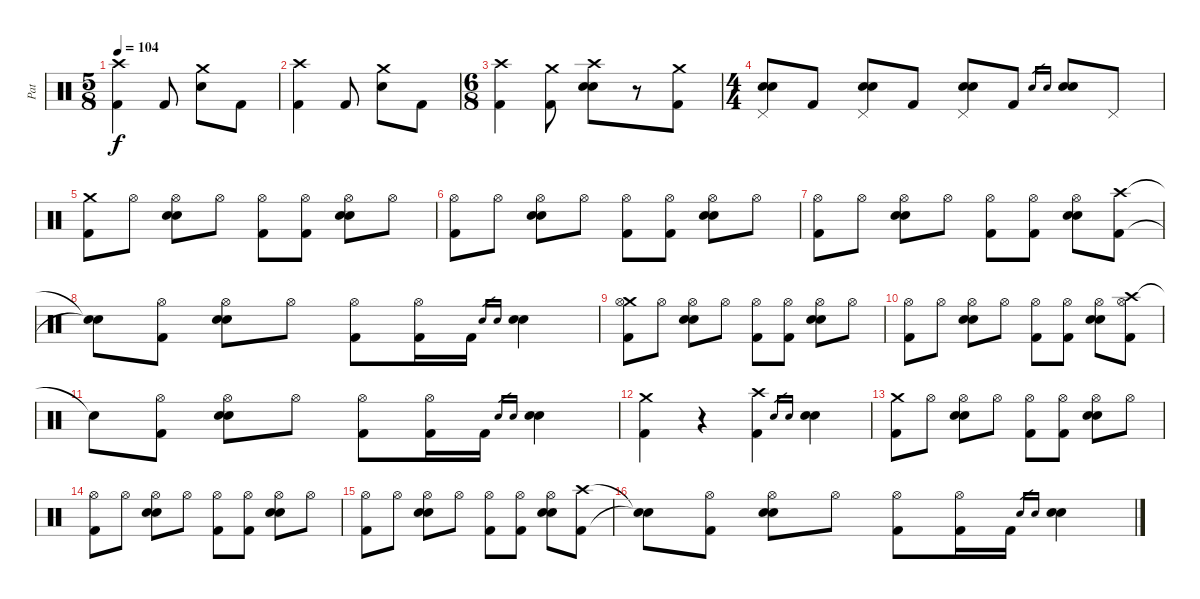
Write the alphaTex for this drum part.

\track ("Pat" "Pat") {instrument percussion}
\staff {score}
\articulation defaults
\ts (5 8)
\tempo 104
\clef neutral
\ks c
("Crash high (hit)" "Kick (hit) 2").4{dy f} "Kick (hit) 2".8 ("Crash medium (hit)" "Electric Snare (hit)").8 "Kick (hit) 2".8 |
("Crash high (hit)" "Kick (hit) 2").4 "Kick (hit) 2".8 ("Crash medium (hit)" "Electric Snare (hit)").8 "Kick (hit) 2".8 |
\ts (6 8)
("Crash high (hit)" "Kick (hit) 2").4 ("Crash medium (hit)" "Kick (hit) 2").8 ("Crash high (hit)" "Electric Snare (hit)" "Snare (hit) 2").8 r.8 ("Crash medium (hit)" "Kick (hit) 2").8 |
\ts (4 4)
("Pedal Hi-Hat (hit)" "Electric Snare (hit)" "Snare (hit) 2").8 "Kick (hit) 2".8 ("Pedal Hi-Hat (hit)" "Electric Snare (hit)" "Snare (hit) 2").8 "Kick (hit) 2".8 ("Pedal Hi-Hat (hit)" "Electric Snare (hit)" "Snare (hit) 2").8 "Kick (hit) 2".8 "Electric Snare (hit)".16{gr} "Snare (hit) 2".16{gr} ("Electric Snare (hit)" "Snare (hit) 2").8 "Pedal Hi-Hat (hit)".8 |
("Crash medium (hit)" "Kick (hit) 2").8 "Hi-Hat (open)".8 ("Hi-Hat (open)" "Electric Snare (hit)" "Snare (hit) 2").8 "Hi-Hat (open)".8 ("Hi-Hat (open)" "Kick (hit) 2").8 ("Hi-Hat (open)" "Kick (hit) 2").8 ("Hi-Hat (open)" "Electric Snare (hit)" "Snare (hit) 2").8 "Hi-Hat (open)".8 |
("Hi-Hat (open)" "Kick (hit) 2").8 "Hi-Hat (open)".8 ("Hi-Hat (open)" "Electric Snare (hit)" "Snare (hit) 2").8 "Hi-Hat (open)".8 ("Hi-Hat (open)" "Kick (hit) 2").8 ("Hi-Hat (open)" "Kick (hit) 2").8 ("Hi-Hat (open)" "Electric Snare (hit)" "Snare (hit) 2").8 "Hi-Hat (open)".8 |
("Hi-Hat (open)" "Kick (hit) 2").8 "Hi-Hat (open)".8 ("Hi-Hat (open)" "Electric Snare (hit)" "Snare (hit) 2").8 "Hi-Hat (open)".8 ("Hi-Hat (open)" "Kick (hit) 2").8 ("Hi-Hat (open)" "Kick (hit) 2").8 ("Hi-Hat (open)" "Electric Snare (hit)" "Snare (hit) 2").8 ("Crash high (hit)" "Kick (hit) 2").8 |
("Snare (hit)"{t} "Snare (hit)"{t}).8 ("Hi-Hat (open)" "Kick (hit) 2").8 ("Hi-Hat (open)" "Electric Snare (hit)" "Snare (hit) 2").8 "Hi-Hat (open)".8 ("Hi-Hat (open)" "Kick (hit) 2").8 ("Hi-Hat (open)" "Kick (hit) 2").16 "Kick (hit) 2".16 "Electric Snare (hit)".16{gr} "Snare (hit) 2".16{gr} ("Electric Snare (hit)" "Snare (hit) 2").4 |
("Crash medium (hit)" "Hi-Hat (open)" "Kick (hit) 2").8 "Hi-Hat (open)".8 ("Hi-Hat (open)" "Electric Snare (hit)" "Snare (hit) 2").8 "Hi-Hat (open)".8 ("Hi-Hat (open)" "Kick (hit) 2").8 ("Hi-Hat (open)" "Kick (hit) 2").8 ("Hi-Hat (open)" "Electric Snare (hit)" "Snare (hit) 2").8 "Hi-Hat (open)".8 |
("Hi-Hat (open)" "Kick (hit) 2").8 "Hi-Hat (open)".8 ("Hi-Hat (open)" "Electric Snare (hit)" "Snare (hit) 2").8 "Hi-Hat (open)".8 ("Hi-Hat (open)" "Kick (hit) 2").8 ("Hi-Hat (open)" "Kick (hit) 2").8 ("Hi-Hat (open)" "Electric Snare (hit)" "Snare (hit) 2").8 ("Crash high (hit)" "Hi-Hat (open)" "Kick (hit) 2").8 |
"Snare (hit)"{t}.8 ("Hi-Hat (open)" "Kick (hit) 2").8 ("Hi-Hat (open)" "Electric Snare (hit)" "Snare (hit) 2").8 "Hi-Hat (open)".8 ("Hi-Hat (open)" "Kick (hit) 2").8 ("Hi-Hat (open)" "Kick (hit) 2").16 "Kick (hit) 2".16 "Electric Snare (hit)".16{gr} "Snare (hit) 2".16{gr} ("Electric Snare (hit)" "Snare (hit) 2").4 |
("Crash medium (hit)" "Kick (hit) 2").4 r.4 ("Crash high (hit)" "Kick (hit) 2").4 "Electric Snare (hit)".16{gr} "Snare (hit) 2".16{gr} ("Electric Snare (hit)" "Snare (hit) 2").4 |
("Crash medium (hit)" "Kick (hit) 2").8 "Hi-Hat (open)".8 ("Hi-Hat (open)" "Electric Snare (hit)" "Snare (hit) 2").8 "Hi-Hat (open)".8 ("Hi-Hat (open)" "Kick (hit) 2").8 ("Hi-Hat (open)" "Kick (hit) 2").8 ("Hi-Hat (open)" "Electric Snare (hit)" "Snare (hit) 2").8 "Hi-Hat (open)".8 |
("Hi-Hat (open)" "Kick (hit) 2").8 "Hi-Hat (open)".8 ("Hi-Hat (open)" "Electric Snare (hit)" "Snare (hit) 2").8 "Hi-Hat (open)".8 ("Hi-Hat (open)" "Kick (hit) 2").8 ("Hi-Hat (open)" "Kick (hit) 2").8 ("Hi-Hat (open)" "Electric Snare (hit)" "Snare (hit) 2").8 "Hi-Hat (open)".8 |
("Hi-Hat (open)" "Kick (hit) 2").8 "Hi-Hat (open)".8 ("Hi-Hat (open)" "Electric Snare (hit)" "Snare (hit) 2").8 "Hi-Hat (open)".8 ("Hi-Hat (open)" "Kick (hit) 2").8 ("Hi-Hat (open)" "Kick (hit) 2").8 ("Hi-Hat (open)" "Electric Snare (hit)" "Snare (hit) 2").8 ("Crash high (hit)" "Kick (hit) 2").8 |
("Snare (hit)"{t} "Snare (hit)"{t}).8 ("Hi-Hat (open)" "Kick (hit) 2").8 ("Hi-Hat (open)" "Electric Snare (hit)" "Snare (hit) 2").8 "Hi-Hat (open)".8 ("Hi-Hat (open)" "Kick (hit) 2").8 ("Hi-Hat (open)" "Kick (hit) 2").16 "Kick (hit) 2".16 "Electric Snare (hit)".16{gr} "Snare (hit) 2".16{gr} ("Electric Snare (hit)" "Snare (hit) 2").4
